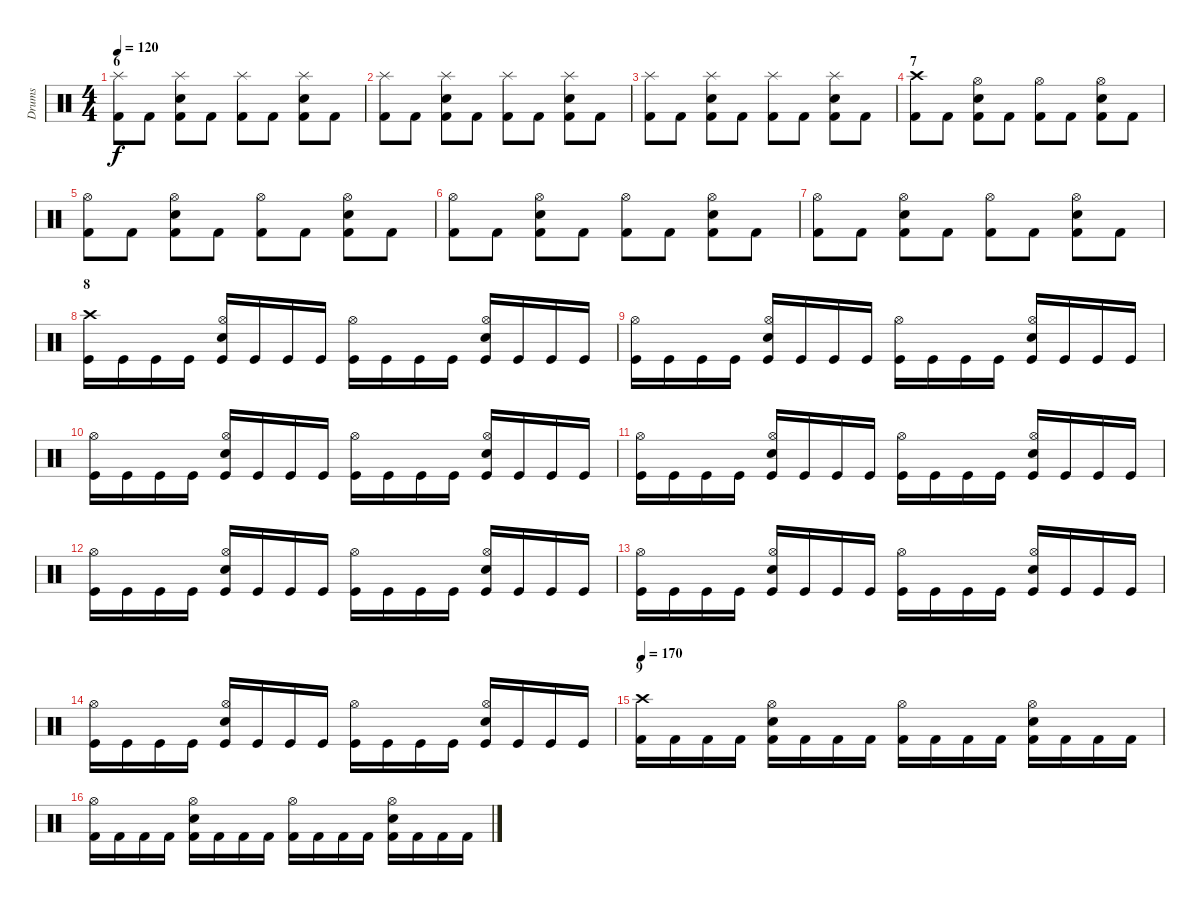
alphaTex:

\track ("Drums " "Drums ") {instrument percussion}
\staff {score}
\articulation defaults
\ts (4 4)
\section ("" "6")
\tempo 120
\clef neutral
\ks c
("Splash (hit)" "Kick (hit) 2").8{dy f} "Kick (hit) 2".8 ("Splash (hit)" "Electric Snare (hit)" "Kick (hit) 2").8 "Kick (hit) 2".8 ("Splash (hit)" "Kick (hit) 2").8 "Kick (hit) 2".8 ("Splash (hit)" "Electric Snare (hit)" "Kick (hit) 2").8 "Kick (hit) 2".8 |
("Splash (hit)" "Kick (hit) 2").8 "Kick (hit) 2".8 ("Splash (hit)" "Electric Snare (hit)" "Kick (hit) 2").8 "Kick (hit) 2".8 ("Splash (hit)" "Kick (hit) 2").8 "Kick (hit) 2".8 ("Splash (hit)" "Electric Snare (hit)" "Kick (hit) 2").8 "Kick (hit) 2".8 |
("Splash (hit)" "Kick (hit) 2").8 "Kick (hit) 2".8 ("Splash (hit)" "Electric Snare (hit)" "Kick (hit) 2").8 "Kick (hit) 2".8 ("Splash (hit)" "Kick (hit) 2").8 "Kick (hit) 2".8 ("Splash (hit)" "Electric Snare (hit)" "Kick (hit) 2").8 "Kick (hit) 2".8 |
\section ("" "7")
("Crash high (hit)" "Kick (hit) 2").8 "Kick (hit) 2".8 ("Hi-Hat (open)" "Electric Snare (hit)" "Kick (hit) 2").8 "Kick (hit) 2".8 ("Hi-Hat (open)" "Kick (hit) 2").8 "Kick (hit) 2".8 ("Hi-Hat (open)" "Electric Snare (hit)" "Kick (hit) 2").8 "Kick (hit) 2".8 |
("Hi-Hat (open)" "Kick (hit) 2").8 "Kick (hit) 2".8 ("Hi-Hat (open)" "Electric Snare (hit)" "Kick (hit) 2").8 "Kick (hit) 2".8 ("Hi-Hat (open)" "Kick (hit) 2").8 "Kick (hit) 2".8 ("Hi-Hat (open)" "Electric Snare (hit)" "Kick (hit) 2").8 "Kick (hit) 2".8 |
("Hi-Hat (open)" "Kick (hit) 2").8 "Kick (hit) 2".8 ("Hi-Hat (open)" "Electric Snare (hit)" "Kick (hit) 2").8 "Kick (hit) 2".8 ("Hi-Hat (open)" "Kick (hit) 2").8 "Kick (hit) 2".8 ("Hi-Hat (open)" "Electric Snare (hit)" "Kick (hit) 2").8 "Kick (hit) 2".8 |
("Hi-Hat (open)" "Kick (hit) 2").8 "Kick (hit) 2".8 ("Hi-Hat (open)" "Electric Snare (hit)" "Kick (hit) 2").8 "Kick (hit) 2".8 ("Hi-Hat (open)" "Kick (hit) 2").8 "Kick (hit) 2".8 ("Hi-Hat (open)" "Electric Snare (hit)" "Kick (hit) 2").8 "Kick (hit) 2".8 |
\section ("" "8")
("Crash high (hit)" "Kick (hit)").16 "Kick (hit)".16 "Kick (hit)".16 "Kick (hit)".16 ("Hi-Hat (open)" "Electric Snare (hit)" "Kick (hit)").16 "Kick (hit)".16 "Kick (hit)".16 "Kick (hit)".16 ("Hi-Hat (open)" "Kick (hit)").16 "Kick (hit)".16 "Kick (hit)".16 "Kick (hit)".16 ("Hi-Hat (open)" "Electric Snare (hit)" "Kick (hit)").16 "Kick (hit)".16 "Kick (hit)".16 "Kick (hit)".16 |
("Hi-Hat (open)" "Kick (hit)").16 "Kick (hit)".16 "Kick (hit)".16 "Kick (hit)".16 ("Hi-Hat (open)" "Electric Snare (hit)" "Kick (hit)").16 "Kick (hit)".16 "Kick (hit)".16 "Kick (hit)".16 ("Hi-Hat (open)" "Kick (hit)").16 "Kick (hit)".16 "Kick (hit)".16 "Kick (hit)".16 ("Hi-Hat (open)" "Electric Snare (hit)" "Kick (hit)").16 "Kick (hit)".16 "Kick (hit)".16 "Kick (hit)".16 |
("Hi-Hat (open)" "Kick (hit)").16 "Kick (hit)".16 "Kick (hit)".16 "Kick (hit)".16 ("Hi-Hat (open)" "Electric Snare (hit)" "Kick (hit)").16 "Kick (hit)".16 "Kick (hit)".16 "Kick (hit)".16 ("Hi-Hat (open)" "Kick (hit)").16 "Kick (hit)".16 "Kick (hit)".16 "Kick (hit)".16 ("Hi-Hat (open)" "Electric Snare (hit)" "Kick (hit)").16 "Kick (hit)".16 "Kick (hit)".16 "Kick (hit)".16 |
("Hi-Hat (open)" "Kick (hit)").16 "Kick (hit)".16 "Kick (hit)".16 "Kick (hit)".16 ("Hi-Hat (open)" "Electric Snare (hit)" "Kick (hit)").16 "Kick (hit)".16 "Kick (hit)".16 "Kick (hit)".16 ("Hi-Hat (open)" "Kick (hit)").16 "Kick (hit)".16 "Kick (hit)".16 "Kick (hit)".16 ("Hi-Hat (open)" "Electric Snare (hit)" "Kick (hit)").16 "Kick (hit)".16 "Kick (hit)".16 "Kick (hit)".16 |
("Hi-Hat (open)" "Kick (hit)").16 "Kick (hit)".16 "Kick (hit)".16 "Kick (hit)".16 ("Hi-Hat (open)" "Electric Snare (hit)" "Kick (hit)").16 "Kick (hit)".16 "Kick (hit)".16 "Kick (hit)".16 ("Hi-Hat (open)" "Kick (hit)").16 "Kick (hit)".16 "Kick (hit)".16 "Kick (hit)".16 ("Hi-Hat (open)" "Electric Snare (hit)" "Kick (hit)").16 "Kick (hit)".16 "Kick (hit)".16 "Kick (hit)".16 |
("Hi-Hat (open)" "Kick (hit)").16 "Kick (hit)".16 "Kick (hit)".16 "Kick (hit)".16 ("Hi-Hat (open)" "Electric Snare (hit)" "Kick (hit)").16 "Kick (hit)".16 "Kick (hit)".16 "Kick (hit)".16 ("Hi-Hat (open)" "Kick (hit)").16 "Kick (hit)".16 "Kick (hit)".16 "Kick (hit)".16 ("Hi-Hat (open)" "Electric Snare (hit)" "Kick (hit)").16 "Kick (hit)".16 "Kick (hit)".16 "Kick (hit)".16 |
("Hi-Hat (open)" "Kick (hit)").16 "Kick (hit)".16 "Kick (hit)".16 "Kick (hit)".16 ("Hi-Hat (open)" "Electric Snare (hit)" "Kick (hit)").16 "Kick (hit)".16 "Kick (hit)".16 "Kick (hit)".16 ("Hi-Hat (open)" "Kick (hit)").16 "Kick (hit)".16 "Kick (hit)".16 "Kick (hit)".16 ("Hi-Hat (open)" "Electric Snare (hit)" "Kick (hit)").16 "Kick (hit)".16 "Kick (hit)".16 "Kick (hit)".16 |
\section ("" "9")
\tempo 170
("Crash high (hit)" "Kick (hit) 2").16 "Kick (hit) 2".16 "Kick (hit) 2".16 "Kick (hit) 2".16 ("Hi-Hat (open)" "Electric Snare (hit)" "Kick (hit) 2").16 "Kick (hit) 2".16 "Kick (hit) 2".16 "Kick (hit) 2".16 ("Hi-Hat (open)" "Kick (hit) 2").16 "Kick (hit) 2".16 "Kick (hit) 2".16 "Kick (hit) 2".16 ("Hi-Hat (open)" "Electric Snare (hit)" "Kick (hit) 2").16 "Kick (hit) 2".16 "Kick (hit) 2".16 "Kick (hit) 2".16 |
("Hi-Hat (open)" "Kick (hit) 2").16 "Kick (hit) 2".16 "Kick (hit) 2".16 "Kick (hit) 2".16 ("Hi-Hat (open)" "Electric Snare (hit)" "Kick (hit) 2").16 "Kick (hit) 2".16 "Kick (hit) 2".16 "Kick (hit) 2".16 ("Hi-Hat (open)" "Kick (hit) 2").16 "Kick (hit) 2".16 "Kick (hit) 2".16 "Kick (hit) 2".16 ("Hi-Hat (open)" "Electric Snare (hit)" "Kick (hit) 2").16 "Kick (hit) 2".16 "Kick (hit) 2".16 "Kick (hit) 2".16
